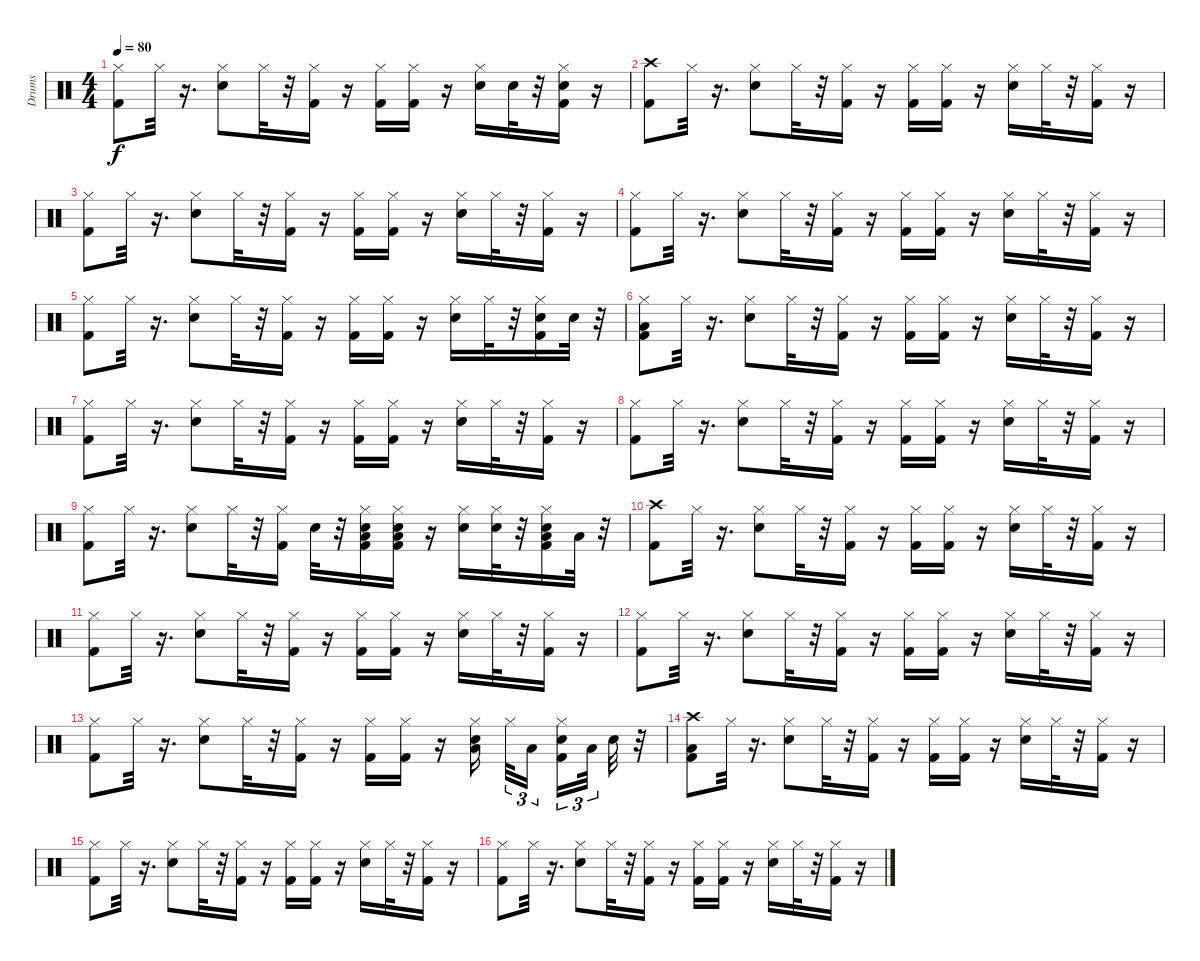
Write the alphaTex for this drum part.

\track ("Drums" "Drums") {instrument percussion}
\staff {score}
\articulation defaults
\ts (4 4)
\tempo 80
\clef neutral
\ks c
("Hi-Hat (closed)" "Kick (hit) 2").8{dy f} "Hi-Hat (closed)".32 r.16{d} ("Hi-Hat (closed)" "Snare (hit) 2").8 "Hi-Hat (closed)".32 r.32 ("Kick (hit) 2" "Hi-Hat (closed)").16 r.16 ("Hi-Hat (closed)" "Kick (hit) 2").16 ("Hi-Hat (closed)" "Kick (hit) 2").16 r.16 ("Hi-Hat (closed)" "Snare (hit) 2").16 "Snare (hit) 2".32 r.32 ("Snare (hit) 2" "Hi-Hat (closed)" "Kick (hit) 2").16 r.16 |
("Crash high (hit)" "Kick (hit) 2").8 "Hi-Hat (closed)".32 r.16{d} ("Hi-Hat (closed)" "Snare (hit) 2").8 "Hi-Hat (closed)".32 r.32 ("Kick (hit) 2" "Hi-Hat (closed)").16 r.16 ("Hi-Hat (closed)" "Kick (hit) 2").16 ("Hi-Hat (closed)" "Kick (hit) 2").16 r.16 ("Hi-Hat (closed)" "Snare (hit) 2").16 "Hi-Hat (closed)".32 r.32 ("Hi-Hat (closed)" "Kick (hit) 2").16 r.16 |
("Hi-Hat (closed)" "Kick (hit) 2").8 "Hi-Hat (closed)".32 r.16{d} ("Hi-Hat (closed)" "Snare (hit) 2").8 "Hi-Hat (closed)".32 r.32 ("Kick (hit) 2" "Hi-Hat (closed)").16 r.16 ("Hi-Hat (closed)" "Kick (hit) 2").16 ("Hi-Hat (closed)" "Kick (hit) 2").16 r.16 ("Hi-Hat (closed)" "Snare (hit) 2").16 "Hi-Hat (closed)".32 r.32 ("Hi-Hat (closed)" "Kick (hit) 2").16 r.16 |
("Hi-Hat (closed)" "Kick (hit) 2").8 "Hi-Hat (closed)".32 r.16{d} ("Hi-Hat (closed)" "Snare (hit) 2").8 "Hi-Hat (closed)".32 r.32 ("Kick (hit) 2" "Hi-Hat (closed)").16 r.16 ("Hi-Hat (closed)" "Kick (hit) 2").16 ("Hi-Hat (closed)" "Kick (hit) 2").16 r.16 ("Hi-Hat (closed)" "Snare (hit) 2").16 "Hi-Hat (closed)".32 r.32 ("Hi-Hat (closed)" "Kick (hit) 2").16 r.16 |
("Hi-Hat (closed)" "Kick (hit) 2").8 "Hi-Hat (closed)".32 r.16{d} ("Hi-Hat (closed)" "Snare (hit) 2").8 "Hi-Hat (closed)".32 r.32 ("Kick (hit) 2" "Hi-Hat (closed)").16 r.16 ("Hi-Hat (closed)" "Kick (hit) 2").16 ("Hi-Hat (closed)" "Kick (hit) 2").16 r.16 ("Hi-Hat (closed)" "Snare (hit) 2").16 "Hi-Hat (closed)".32 r.32 ("Snare (hit) 2" "Hi-Hat (closed)" "Kick (hit) 2").16 "Snare (hit) 2".32 r.32 |
("Low Floor Tom (hit)" "Hi-Hat (closed)" "Kick (hit) 2").8 "Hi-Hat (closed)".32 r.16{d} ("Hi-Hat (closed)" "Snare (hit) 2").8 "Hi-Hat (closed)".32 r.32 ("Kick (hit) 2" "Hi-Hat (closed)").16 r.16 ("Hi-Hat (closed)" "Kick (hit) 2").16 ("Hi-Hat (closed)" "Kick (hit) 2").16 r.16 ("Hi-Hat (closed)" "Snare (hit) 2").16 "Hi-Hat (closed)".32 r.32 ("Hi-Hat (closed)" "Kick (hit) 2").16 r.16 |
("Hi-Hat (closed)" "Kick (hit) 2").8 "Hi-Hat (closed)".32 r.16{d} ("Hi-Hat (closed)" "Snare (hit) 2").8 "Hi-Hat (closed)".32 r.32 ("Kick (hit) 2" "Hi-Hat (closed)").16 r.16 ("Hi-Hat (closed)" "Kick (hit) 2").16 ("Hi-Hat (closed)" "Kick (hit) 2").16 r.16 ("Hi-Hat (closed)" "Snare (hit) 2").16 "Hi-Hat (closed)".32 r.32 ("Hi-Hat (closed)" "Kick (hit) 2").16 r.16 |
("Hi-Hat (closed)" "Kick (hit) 2").8 "Hi-Hat (closed)".32 r.16{d} ("Hi-Hat (closed)" "Snare (hit) 2").8 "Hi-Hat (closed)".32 r.32 ("Kick (hit) 2" "Hi-Hat (closed)").16 r.16 ("Hi-Hat (closed)" "Kick (hit) 2").16 ("Hi-Hat (closed)" "Kick (hit) 2").16 r.16 ("Hi-Hat (closed)" "Snare (hit) 2").16 "Hi-Hat (closed)".32 r.32 ("Hi-Hat (closed)" "Kick (hit) 2").16 r.16 |
("Hi-Hat (closed)" "Kick (hit) 2").8 "Hi-Hat (closed)".32 r.16{d} ("Hi-Hat (closed)" "Snare (hit) 2").8 "Hi-Hat (closed)".32 r.32 ("Kick (hit) 2" "Hi-Hat (closed)").16 "Snare (hit) 2".32 r.32 ("Low Floor Tom (hit)" "Snare (hit) 2" "Hi-Hat (closed)" "Kick (hit) 2").16 ("Low Floor Tom (hit)" "Snare (hit) 2" "Hi-Hat (closed)" "Kick (hit) 2").16 r.16 ("Hi-Hat (closed)" "Snare (hit) 2").16 ("Snare (hit) 2" "Hi-Hat (closed)").32 r.32 ("Low Floor Tom (hit)" "Snare (hit) 2" "Hi-Hat (closed)" "Kick (hit) 2").16 "Low Floor Tom (hit)".32 r.32 |
("Crash high (hit)" "Kick (hit) 2").8 "Hi-Hat (closed)".32 r.16{d} ("Hi-Hat (closed)" "Snare (hit) 2").8 "Hi-Hat (closed)".32 r.32 ("Kick (hit) 2" "Hi-Hat (closed)").16 r.16 ("Hi-Hat (closed)" "Kick (hit) 2").16 ("Hi-Hat (closed)" "Kick (hit) 2").16 r.16 ("Hi-Hat (closed)" "Snare (hit) 2").16 "Hi-Hat (closed)".32 r.32 ("Hi-Hat (closed)" "Kick (hit) 2").16 r.16 |
("Hi-Hat (closed)" "Kick (hit) 2").8 "Hi-Hat (closed)".32 r.16{d} ("Hi-Hat (closed)" "Snare (hit) 2").8 "Hi-Hat (closed)".32 r.32 ("Kick (hit) 2" "Hi-Hat (closed)").16 r.16 ("Hi-Hat (closed)" "Kick (hit) 2").16 ("Hi-Hat (closed)" "Kick (hit) 2").16 r.16 ("Hi-Hat (closed)" "Snare (hit) 2").16 "Hi-Hat (closed)".32 r.32 ("Hi-Hat (closed)" "Kick (hit) 2").16 r.16 |
("Hi-Hat (closed)" "Kick (hit) 2").8 "Hi-Hat (closed)".32 r.16{d} ("Hi-Hat (closed)" "Snare (hit) 2").8 "Hi-Hat (closed)".32 r.32 ("Kick (hit) 2" "Hi-Hat (closed)").16 r.16 ("Hi-Hat (closed)" "Kick (hit) 2").16 ("Hi-Hat (closed)" "Kick (hit) 2").16 r.16 ("Hi-Hat (closed)" "Snare (hit) 2").16 "Hi-Hat (closed)".32 r.32 ("Hi-Hat (closed)" "Kick (hit) 2").16 r.16 |
("Hi-Hat (closed)" "Kick (hit) 2").8 "Hi-Hat (closed)".32 r.16{d} ("Hi-Hat (closed)" "Snare (hit) 2").8 "Hi-Hat (closed)".32 r.32 ("Kick (hit) 2" "Hi-Hat (closed)").16 r.16 ("Hi-Hat (closed)" "Kick (hit) 2").16 ("Hi-Hat (closed)" "Kick (hit) 2").16 r.16 ("Low Floor Tom (hit)" "Hi-Hat (closed)" "Snare (hit) 2").16 "Hi-Hat (closed)".32{tu (3 2)} "Low Floor Tom (hit)".16{tu (3 2)} ("Snare (hit) 2" "Hi-Hat (closed)" "Kick (hit) 2").16{tu (3 2)} "Low Floor Tom (hit)".32{tu (3 2)} "Snare (hit) 2".32 r.32 |
("Low Floor Tom (hit)" "Crash high (hit)" "Kick (hit) 2").8 "Hi-Hat (closed)".32 r.16{d} ("Hi-Hat (closed)" "Snare (hit) 2").8 "Hi-Hat (closed)".32 r.32 ("Kick (hit) 2" "Hi-Hat (closed)").16 r.16 ("Hi-Hat (closed)" "Kick (hit) 2").16 ("Hi-Hat (closed)" "Kick (hit) 2").16 r.16 ("Hi-Hat (closed)" "Snare (hit) 2").16 "Hi-Hat (closed)".32 r.32 ("Hi-Hat (closed)" "Kick (hit) 2").16 r.16 |
("Hi-Hat (closed)" "Kick (hit) 2").8 "Hi-Hat (closed)".32 r.16{d} ("Hi-Hat (closed)" "Snare (hit) 2").8 "Hi-Hat (closed)".32 r.32 ("Kick (hit) 2" "Hi-Hat (closed)").16 r.16 ("Hi-Hat (closed)" "Kick (hit) 2").16 ("Hi-Hat (closed)" "Kick (hit) 2").16 r.16 ("Hi-Hat (closed)" "Snare (hit) 2").16 "Hi-Hat (closed)".32 r.32 ("Hi-Hat (closed)" "Kick (hit) 2").16 r.16 |
("Hi-Hat (closed)" "Kick (hit) 2").8 "Hi-Hat (closed)".32 r.16{d} ("Hi-Hat (closed)" "Snare (hit) 2").8 "Hi-Hat (closed)".32 r.32 ("Kick (hit) 2" "Hi-Hat (closed)").16 r.16 ("Hi-Hat (closed)" "Kick (hit) 2").16 ("Hi-Hat (closed)" "Kick (hit) 2").16 r.16 ("Hi-Hat (closed)" "Snare (hit) 2").16 "Hi-Hat (closed)".32 r.32 ("Hi-Hat (closed)" "Kick (hit) 2").16 r.16
